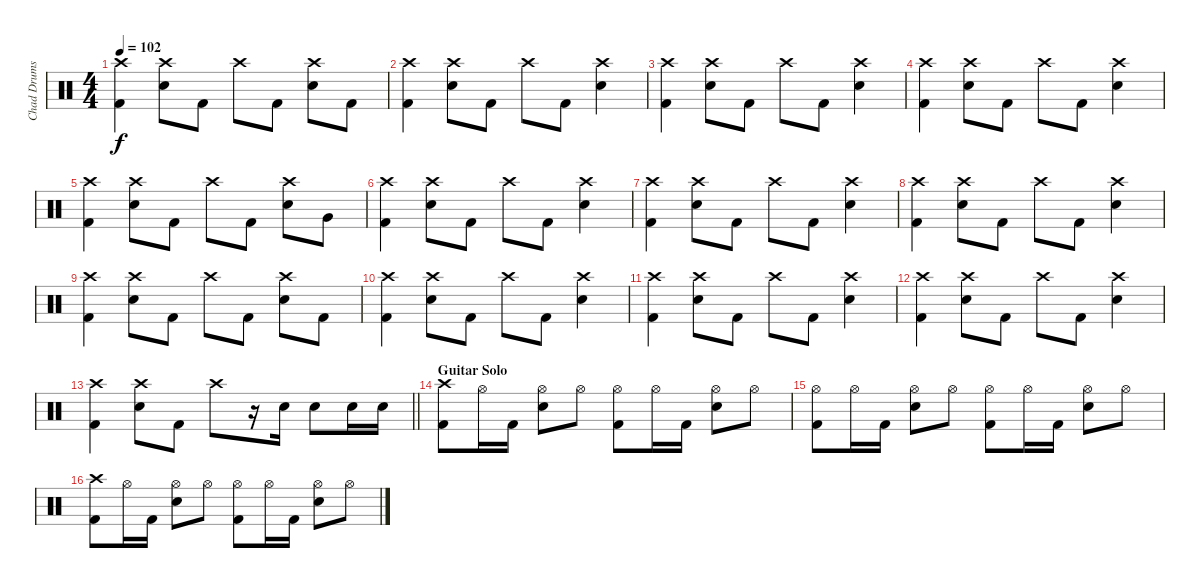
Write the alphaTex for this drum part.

\track ("Chad Drums)" "Chad Drums") {instrument percussion}
\staff {score}
\articulation defaults
\ts (4 4)
\tempo 102
\clef neutral
\ks c
("Crash high (hit)" "Kick (hit) 2").4{dy f} ("Crash high (hit)" "Snare (hit) 2").8 "Kick (hit) 2".8 "Crash high (hit)".8 "Kick (hit) 2".8 ("Crash high (hit)" "Snare (hit) 2").8 "Kick (hit) 2".8 |
("Crash high (hit)" "Kick (hit) 2").4 ("Crash high (hit)" "Snare (hit) 2").8 "Kick (hit) 2".8 "Crash high (hit)".8 "Kick (hit) 2".8 ("Crash high (hit)" "Snare (hit) 2").4 |
("Crash high (hit)" "Kick (hit) 2").4 ("Crash high (hit)" "Snare (hit) 2").8 "Kick (hit) 2".8 "Crash high (hit)".8 "Kick (hit) 2".8 ("Crash high (hit)" "Snare (hit) 2").4 |
("Crash high (hit)" "Kick (hit) 2").4 ("Crash high (hit)" "Snare (hit) 2").8 "Kick (hit) 2".8 "Crash high (hit)".8 "Kick (hit) 2".8 ("Crash high (hit)" "Snare (hit) 2").4 |
("Crash high (hit)" "Kick (hit) 2").4 ("Crash high (hit)" "Snare (hit) 2").8 "Kick (hit) 2".8 "Crash high (hit)".8 "Kick (hit) 2".8 ("Crash high (hit)" "Snare (hit) 2").8 "Very Low Tom (hit)".8 |
("Crash high (hit)" "Kick (hit) 2").4 ("Crash high (hit)" "Snare (hit) 2").8 "Kick (hit) 2".8 "Crash high (hit)".8 "Kick (hit) 2".8 ("Crash high (hit)" "Snare (hit) 2").4 |
("Crash high (hit)" "Kick (hit) 2").4 ("Crash high (hit)" "Snare (hit) 2").8 "Kick (hit) 2".8 "Crash high (hit)".8 "Kick (hit) 2".8 ("Crash high (hit)" "Snare (hit) 2").4 |
("Crash high (hit)" "Kick (hit) 2").4 ("Crash high (hit)" "Snare (hit) 2").8 "Kick (hit) 2".8 "Crash high (hit)".8 "Kick (hit) 2".8 ("Crash high (hit)" "Snare (hit) 2").4 |
("Crash high (hit)" "Kick (hit) 2").4 ("Crash high (hit)" "Snare (hit) 2").8 "Kick (hit) 2".8 "Crash high (hit)".8 "Kick (hit) 2".8 ("Crash high (hit)" "Snare (hit) 2").8 "Kick (hit) 2".8 |
("Crash high (hit)" "Kick (hit) 2").4 ("Crash high (hit)" "Snare (hit) 2").8 "Kick (hit) 2".8 "Crash high (hit)".8 "Kick (hit) 2".8 ("Crash high (hit)" "Snare (hit) 2").4 |
("Crash high (hit)" "Kick (hit) 2").4 ("Crash high (hit)" "Snare (hit) 2").8 "Kick (hit) 2".8 "Crash high (hit)".8 "Kick (hit) 2".8 ("Crash high (hit)" "Snare (hit) 2").4 |
("Crash high (hit)" "Kick (hit) 2").4 ("Crash high (hit)" "Snare (hit) 2").8 "Kick (hit) 2".8 "Crash high (hit)".8 "Kick (hit) 2".8 ("Crash high (hit)" "Snare (hit) 2").4 |
\barLineRight lightlight
("Crash high (hit)" "Kick (hit) 2").4 ("Crash high (hit)" "Snare (hit) 2").8 "Kick (hit) 2".8 "Crash high (hit)".8 r.16 "Snare (hit) 2".16 "Snare (hit) 2".8 "Snare (hit) 2".16 "Snare (hit) 2".16 |
\section ("" "Guitar Solo")
("Crash high (hit)" "Kick (hit) 2").8 "Hi-Hat (open)".16 "Kick (hit) 2".16 ("Hi-Hat (open)" "Snare (hit) 2").8 "Hi-Hat (open)".8 ("Hi-Hat (open)" "Kick (hit) 2").8 "Hi-Hat (open)".16 "Kick (hit) 2".16 ("Hi-Hat (open)" "Snare (hit) 2").8 "Hi-Hat (open)".8 |
("Hi-Hat (open)" "Kick (hit) 2").8 "Hi-Hat (open)".16 "Kick (hit) 2".16 ("Hi-Hat (open)" "Snare (hit) 2").8 "Hi-Hat (open)".8 ("Hi-Hat (open)" "Kick (hit) 2").8 "Hi-Hat (open)".16 "Kick (hit) 2".16 ("Hi-Hat (open)" "Snare (hit) 2").8 "Hi-Hat (open)".8 |
("Crash high (hit)" "Kick (hit) 2").8 "Hi-Hat (open)".16 "Kick (hit) 2".16 ("Hi-Hat (open)" "Snare (hit) 2").8 "Hi-Hat (open)".8 ("Hi-Hat (open)" "Kick (hit) 2").8 "Hi-Hat (open)".16 "Kick (hit) 2".16 ("Hi-Hat (open)" "Snare (hit) 2").8 "Hi-Hat (open)".8
